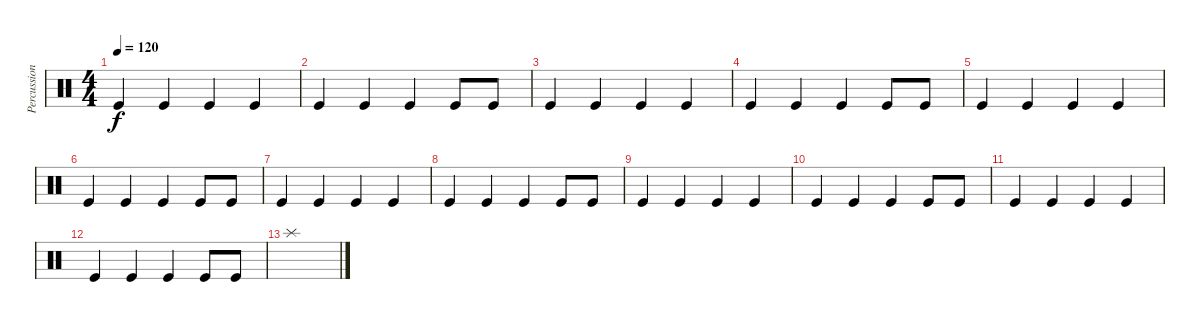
\track ("Percussion" "Percussion") {instrument percussion}
\staff {score}
\articulation defaults
\ts (4 4)
\tempo 120
\clef neutral
\ks c "Kick (hit)".4{dy f} "Kick (hit)".4 "Kick (hit)".4 "Kick (hit)".4
|
"Kick (hit)".4 "Kick (hit)".4 "Kick (hit)".4 "Kick (hit)".8 "Kick (hit)".8 |
"Kick (hit)".4 "Kick (hit)".4 "Kick (hit)".4 "Kick (hit)".4 |
"Kick (hit)".4 "Kick (hit)".4 "Kick (hit)".4 "Kick (hit)".8 "Kick (hit)".8 |
"Kick (hit)".4 "Kick (hit)".4 "Kick (hit)".4 "Kick (hit)".4 |
"Kick (hit)".4 "Kick (hit)".4 "Kick (hit)".4 "Kick (hit)".8 "Kick (hit)".8 |
"Kick (hit)".4 "Kick (hit)".4 "Kick (hit)".4 "Kick (hit)".4 |
"Kick (hit)".4 "Kick (hit)".4 "Kick (hit)".4 "Kick (hit)".8 "Kick (hit)".8 |
"Kick (hit)".4 "Kick (hit)".4 "Kick (hit)".4 "Kick (hit)".4 |
"Kick (hit)".4 "Kick (hit)".4 "Kick (hit)".4 "Kick (hit)".8 "Kick (hit)".8 |
"Kick (hit)".4 "Kick (hit)".4 "Kick (hit)".4 "Kick (hit)".4 |
"Kick (hit)".4 "Kick (hit)".4 "Kick (hit)".4 "Kick (hit)".8 "Kick (hit)".8 |
"Splash (hit)".1
